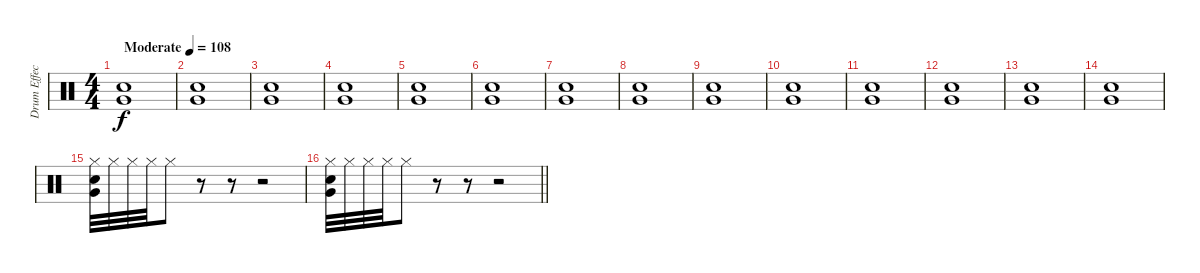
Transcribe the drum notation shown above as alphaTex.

\track ("Drum Effects" "Drum Effec") {instrument percussion}
\staff {score}
\articulation defaults
\ts (4 4)
\section ("" "")
\tempo (108 "Moderate")
\clef neutral
\ks c
("Hand Clap (hit)" "Very Low Tom (hit)").1{dy f} |
("Hand Clap (hit)" "Very Low Tom (hit)").1 |
("Hand Clap (hit)" "Very Low Tom (hit)").1 |
("Hand Clap (hit)" "Very Low Tom (hit)").1 |
("Hand Clap (hit)" "Very Low Tom (hit)").1 |
("Hand Clap (hit)" "Very Low Tom (hit)").1 |
("Hand Clap (hit)" "Very Low Tom (hit)").1 |
("Hand Clap (hit)" "Very Low Tom (hit)").1 |
("Hand Clap (hit)" "Very Low Tom (hit)").1 |
("Hand Clap (hit)" "Very Low Tom (hit)").1 |
("Hand Clap (hit)" "Very Low Tom (hit)").1 |
("Hand Clap (hit)" "Very Low Tom (hit)").1 |
("Hand Clap (hit)" "Very Low Tom (hit)").1 |
("Hand Clap (hit)" "Very Low Tom (hit)").1 |
("Hi-Hat (closed)" "Hand Clap (hit)" "Very Low Tom (hit)").32 "Hi-Hat (closed)".32 "Hi-Hat (closed)".32 "Hi-Hat (closed)".32 "Hi-Hat (closed)".8 r.8 r.8 r.2 |
\barLineRight lightlight
("Hi-Hat (closed)" "Hand Clap (hit)" "Very Low Tom (hit)").32 "Hi-Hat (closed)".32 "Hi-Hat (closed)".32 "Hi-Hat (closed)".32 "Hi-Hat (closed)".8 r.8 r.8 r.2
